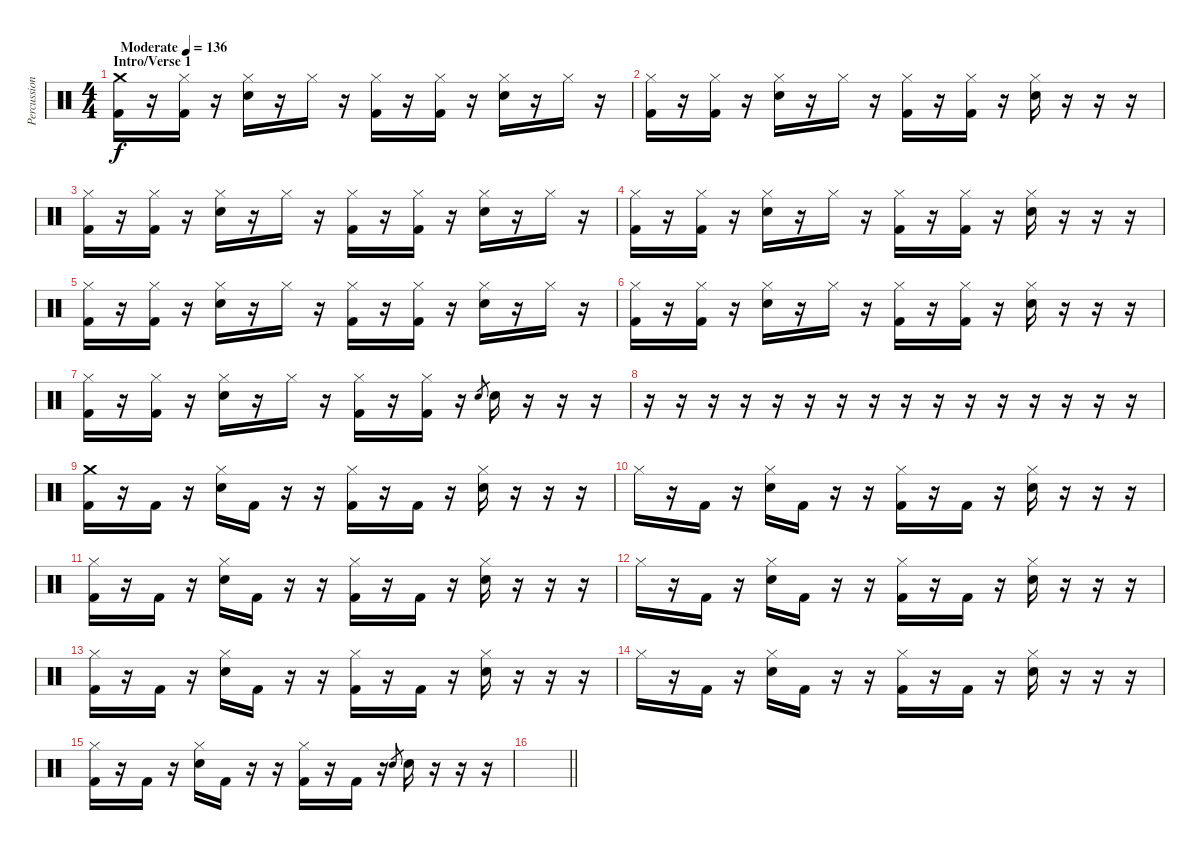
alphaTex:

\track ("Percussion" "Percussion") {instrument percussion}
\staff {score}
\articulation defaults
\ts (4 4)
\section ("" "Intro/Verse 1")
\tempo (136 "Moderate")
\clef neutral
\ks c
("Crash medium (hit)" "Kick (hit) 2").16{dy f} r.16 ("Hi-Hat (closed)" "Kick (hit) 2").16 r.16 ("Hi-Hat (closed)" "Electric Snare (hit)").16 r.16 "Hi-Hat (closed)".16 r.16 ("Hi-Hat (closed)" "Kick (hit) 2").16 r.16 ("Hi-Hat (closed)" "Kick (hit) 2").16 r.16 ("Hi-Hat (closed)" "Electric Snare (hit)").16 r.16 "Hi-Hat (closed)".16 r.16 |
("Hi-Hat (closed)" "Kick (hit) 2").16 r.16 ("Hi-Hat (closed)" "Kick (hit) 2").16 r.16 ("Hi-Hat (closed)" "Electric Snare (hit)").16 r.16 "Hi-Hat (closed)".16 r.16 ("Hi-Hat (closed)" "Kick (hit) 2").16 r.16 ("Hi-Hat (closed)" "Kick (hit) 2").16 r.16 ("Hi-Hat (closed)" "Electric Snare (hit)").16 r.16 r.16 r.16 |
("Hi-Hat (closed)" "Kick (hit) 2").16 r.16 ("Hi-Hat (closed)" "Kick (hit) 2").16 r.16 ("Hi-Hat (closed)" "Electric Snare (hit)").16 r.16 "Hi-Hat (closed)".16 r.16 ("Hi-Hat (closed)" "Kick (hit) 2").16 r.16 ("Hi-Hat (closed)" "Kick (hit) 2").16 r.16 ("Hi-Hat (closed)" "Electric Snare (hit)").16 r.16 "Hi-Hat (closed)".16 r.16 |
("Hi-Hat (closed)" "Kick (hit) 2").16 r.16 ("Hi-Hat (closed)" "Kick (hit) 2").16 r.16 ("Hi-Hat (closed)" "Electric Snare (hit)").16 r.16 "Hi-Hat (closed)".16 r.16 ("Hi-Hat (closed)" "Kick (hit) 2").16 r.16 ("Hi-Hat (closed)" "Kick (hit) 2").16 r.16 ("Hi-Hat (closed)" "Electric Snare (hit)").16 r.16 r.16 r.16 |
("Hi-Hat (closed)" "Kick (hit) 2").16 r.16 ("Hi-Hat (closed)" "Kick (hit) 2").16 r.16 ("Hi-Hat (closed)" "Electric Snare (hit)").16 r.16 "Hi-Hat (closed)".16 r.16 ("Hi-Hat (closed)" "Kick (hit) 2").16 r.16 ("Hi-Hat (closed)" "Kick (hit) 2").16 r.16 ("Hi-Hat (closed)" "Electric Snare (hit)").16 r.16 "Hi-Hat (closed)".16 r.16 |
("Hi-Hat (closed)" "Kick (hit) 2").16 r.16 ("Hi-Hat (closed)" "Kick (hit) 2").16 r.16 ("Hi-Hat (closed)" "Electric Snare (hit)").16 r.16 "Hi-Hat (closed)".16 r.16 ("Hi-Hat (closed)" "Kick (hit) 2").16 r.16 ("Hi-Hat (closed)" "Kick (hit) 2").16 r.16 ("Hi-Hat (closed)" "Electric Snare (hit)").16 r.16 r.16 r.16 |
("Hi-Hat (closed)" "Kick (hit) 2").16 r.16 ("Hi-Hat (closed)" "Kick (hit) 2").16 r.16 ("Hi-Hat (closed)" "Electric Snare (hit)").16 r.16 "Hi-Hat (closed)".16 r.16 ("Hi-Hat (closed)" "Kick (hit) 2").16 r.16 ("Hi-Hat (closed)" "Kick (hit) 2").16 r.16 "Electric Snare (hit)".8{gr} "Electric Snare (hit)".16 r.16 r.16 r.16 |
r.16 r.16 r.16 r.16 r.16 r.16 r.16 r.16 r.16 r.16 r.16 r.16 r.16 r.16 r.16 r.16 |
("Crash medium (hit)" "Kick (hit) 2").16 r.16 "Kick (hit) 2".16 r.16 ("Hi-Hat (closed)" "Electric Snare (hit)").16 "Kick (hit) 2".16 r.16 r.16 ("Hi-Hat (closed)" "Kick (hit) 2").16 r.16 "Kick (hit) 2".16 r.16 ("Hi-Hat (closed)" "Electric Snare (hit)").16 r.16 r.16 r.16 |
"Hi-Hat (closed)".16 r.16 "Kick (hit) 2".16 r.16 ("Hi-Hat (closed)" "Electric Snare (hit)").16 "Kick (hit) 2".16 r.16 r.16 ("Hi-Hat (closed)" "Kick (hit) 2").16 r.16 "Kick (hit) 2".16 r.16 ("Hi-Hat (closed)" "Electric Snare (hit)").16 r.16 r.16 r.16 |
("Hi-Hat (closed)" "Kick (hit) 2").16 r.16 "Kick (hit) 2".16 r.16 ("Hi-Hat (closed)" "Electric Snare (hit)").16 "Kick (hit) 2".16 r.16 r.16 ("Hi-Hat (closed)" "Kick (hit) 2").16 r.16 "Kick (hit) 2".16 r.16 ("Hi-Hat (closed)" "Electric Snare (hit)").16 r.16 r.16 r.16 |
"Hi-Hat (closed)".16 r.16 "Kick (hit) 2".16 r.16 ("Hi-Hat (closed)" "Electric Snare (hit)").16 "Kick (hit) 2".16 r.16 r.16 ("Hi-Hat (closed)" "Kick (hit) 2").16 r.16 "Kick (hit) 2".16 r.16 ("Hi-Hat (closed)" "Electric Snare (hit)").16 r.16 r.16 r.16 |
("Hi-Hat (closed)" "Kick (hit) 2").16 r.16 "Kick (hit) 2".16 r.16 ("Hi-Hat (closed)" "Electric Snare (hit)").16 "Kick (hit) 2".16 r.16 r.16 ("Hi-Hat (closed)" "Kick (hit) 2").16 r.16 "Kick (hit) 2".16 r.16 ("Hi-Hat (closed)" "Electric Snare (hit)").16 r.16 r.16 r.16 |
"Hi-Hat (closed)".16 r.16 "Kick (hit) 2".16 r.16 ("Hi-Hat (closed)" "Electric Snare (hit)").16 "Kick (hit) 2".16 r.16 r.16 ("Hi-Hat (closed)" "Kick (hit) 2").16 r.16 "Kick (hit) 2".16 r.16 ("Hi-Hat (closed)" "Electric Snare (hit)").16 r.16 r.16 r.16 |
("Hi-Hat (closed)" "Kick (hit) 2").16 r.16 "Kick (hit) 2".16 r.16 ("Hi-Hat (closed)" "Electric Snare (hit)").16 "Kick (hit) 2".16 r.16 r.16 ("Hi-Hat (closed)" "Kick (hit) 2").16 r.16 "Kick (hit) 2".16 r.16 "Electric Snare (hit)".8{gr} "Electric Snare (hit)".16 r.16 r.16 r.16 |
\barLineRight lightlight
